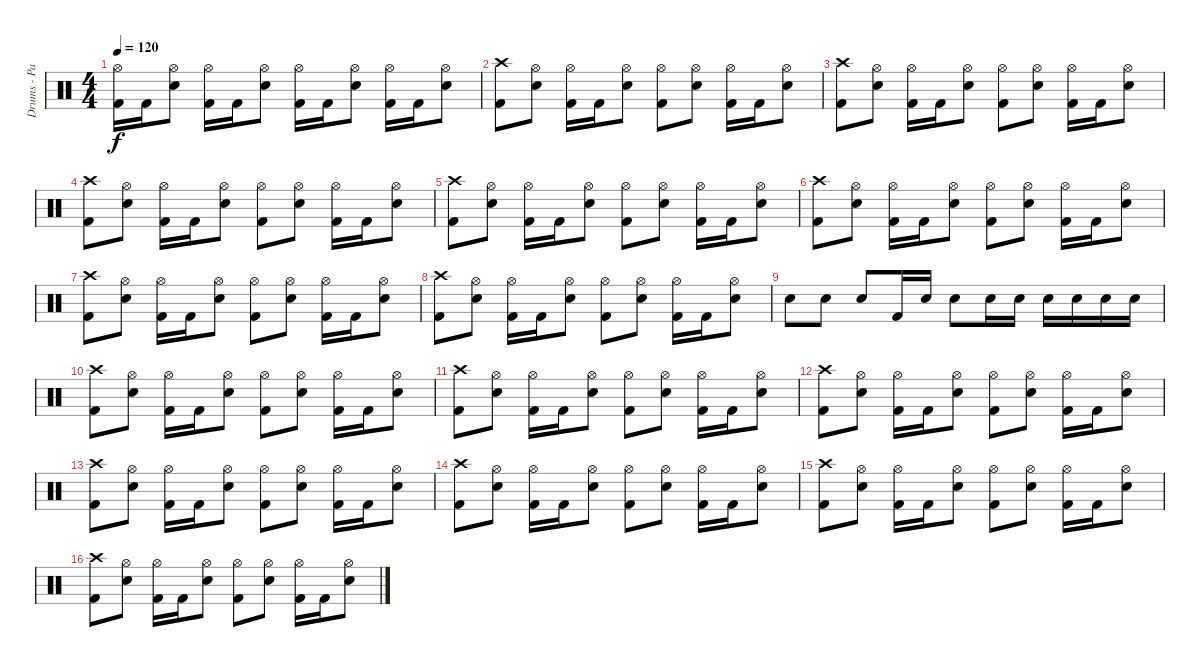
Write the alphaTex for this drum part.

\track ("Drums - Pat Thetic" "Drums - Pa") {instrument percussion}
\staff {score}
\articulation defaults
\ts (4 4)
\tempo 120
\clef neutral
\ks c
("Hi-Hat (open)" "Kick (hit) 2").16{dy f} "Kick (hit) 2".16 ("Hi-Hat (open)" "Electric Snare (hit)").8 ("Hi-Hat (open)" "Kick (hit) 2").16 "Kick (hit) 2".16 ("Hi-Hat (open)" "Electric Snare (hit)").8 ("Hi-Hat (open)" "Kick (hit) 2").16 "Kick (hit) 2".16 ("Hi-Hat (open)" "Electric Snare (hit)").8 ("Hi-Hat (open)" "Kick (hit) 2").16 "Kick (hit) 2".16 ("Hi-Hat (open)" "Electric Snare (hit)").8 |
("Crash high (hit)" "Kick (hit) 2").8 ("Hi-Hat (open)" "Electric Snare (hit)").8 ("Hi-Hat (open)" "Kick (hit) 2").16 "Kick (hit) 2".16 ("Hi-Hat (open)" "Electric Snare (hit)").8 ("Hi-Hat (open)" "Kick (hit) 2").8 ("Hi-Hat (open)" "Electric Snare (hit)").8 ("Hi-Hat (open)" "Kick (hit) 2").16 "Kick (hit) 2".16 ("Hi-Hat (open)" "Electric Snare (hit)").8 |
("Crash high (hit)" "Kick (hit) 2").8 ("Hi-Hat (open)" "Electric Snare (hit)").8 ("Hi-Hat (open)" "Kick (hit) 2").16 "Kick (hit) 2".16 ("Hi-Hat (open)" "Electric Snare (hit)").8 ("Hi-Hat (open)" "Kick (hit) 2").8 ("Hi-Hat (open)" "Electric Snare (hit)").8 ("Hi-Hat (open)" "Kick (hit) 2").16 "Kick (hit) 2".16 ("Hi-Hat (open)" "Electric Snare (hit)").8 |
("Crash high (hit)" "Kick (hit) 2").8 ("Hi-Hat (open)" "Electric Snare (hit)").8 ("Hi-Hat (open)" "Kick (hit) 2").16 "Kick (hit) 2".16 ("Hi-Hat (open)" "Electric Snare (hit)").8 ("Hi-Hat (open)" "Kick (hit) 2").8 ("Hi-Hat (open)" "Electric Snare (hit)").8 ("Hi-Hat (open)" "Kick (hit) 2").16 "Kick (hit) 2".16 ("Hi-Hat (open)" "Electric Snare (hit)").8 |
("Crash high (hit)" "Kick (hit) 2").8 ("Hi-Hat (open)" "Electric Snare (hit)").8 ("Hi-Hat (open)" "Kick (hit) 2").16 "Kick (hit) 2".16 ("Hi-Hat (open)" "Electric Snare (hit)").8 ("Hi-Hat (open)" "Kick (hit) 2").8 ("Hi-Hat (open)" "Electric Snare (hit)").8 ("Hi-Hat (open)" "Kick (hit) 2").16 "Kick (hit) 2".16 ("Hi-Hat (open)" "Electric Snare (hit)").8 |
("Crash high (hit)" "Kick (hit) 2").8 ("Hi-Hat (open)" "Electric Snare (hit)").8 ("Hi-Hat (open)" "Kick (hit) 2").16 "Kick (hit) 2".16 ("Hi-Hat (open)" "Electric Snare (hit)").8 ("Hi-Hat (open)" "Kick (hit) 2").8 ("Hi-Hat (open)" "Electric Snare (hit)").8 ("Hi-Hat (open)" "Kick (hit) 2").16 "Kick (hit) 2".16 ("Hi-Hat (open)" "Electric Snare (hit)").8 |
("Crash high (hit)" "Kick (hit) 2").8 ("Hi-Hat (open)" "Electric Snare (hit)").8 ("Hi-Hat (open)" "Kick (hit) 2").16 "Kick (hit) 2".16 ("Hi-Hat (open)" "Electric Snare (hit)").8 ("Hi-Hat (open)" "Kick (hit) 2").8 ("Hi-Hat (open)" "Electric Snare (hit)").8 ("Hi-Hat (open)" "Kick (hit) 2").16 "Kick (hit) 2".16 ("Hi-Hat (open)" "Electric Snare (hit)").8 |
("Crash high (hit)" "Kick (hit) 2").8 ("Hi-Hat (open)" "Electric Snare (hit)").8 ("Hi-Hat (open)" "Kick (hit) 2").16 "Kick (hit) 2".16 ("Hi-Hat (open)" "Electric Snare (hit)").8 ("Hi-Hat (open)" "Kick (hit) 2").8 ("Hi-Hat (open)" "Electric Snare (hit)").8 ("Hi-Hat (open)" "Kick (hit) 2").16 "Kick (hit) 2".16 ("Hi-Hat (open)" "Electric Snare (hit)").8 |
"Electric Snare (hit)".8 "Electric Snare (hit)".8 "Electric Snare (hit)".8 "Kick (hit) 2".16 "Electric Snare (hit)".16 "Electric Snare (hit)".8 "Electric Snare (hit)".16 "Electric Snare (hit)".16 "Electric Snare (hit)".16 "Electric Snare (hit)".16 "Electric Snare (hit)".16 "Electric Snare (hit)".16 |
("Crash high (hit)" "Kick (hit) 2").8 ("Hi-Hat (open)" "Electric Snare (hit)").8 ("Hi-Hat (open)" "Kick (hit) 2").16 "Kick (hit) 2".16 ("Hi-Hat (open)" "Electric Snare (hit)").8 ("Hi-Hat (open)" "Kick (hit) 2").8 ("Hi-Hat (open)" "Electric Snare (hit)").8 ("Hi-Hat (open)" "Kick (hit) 2").16 "Kick (hit) 2".16 ("Hi-Hat (open)" "Electric Snare (hit)").8 |
("Crash high (hit)" "Kick (hit) 2").8 ("Hi-Hat (open)" "Electric Snare (hit)").8 ("Hi-Hat (open)" "Kick (hit) 2").16 "Kick (hit) 2".16 ("Hi-Hat (open)" "Electric Snare (hit)").8 ("Hi-Hat (open)" "Kick (hit) 2").8 ("Hi-Hat (open)" "Electric Snare (hit)").8 ("Hi-Hat (open)" "Kick (hit) 2").16 "Kick (hit) 2".16 ("Hi-Hat (open)" "Electric Snare (hit)").8 |
("Crash high (hit)" "Kick (hit) 2").8 ("Hi-Hat (open)" "Electric Snare (hit)").8 ("Hi-Hat (open)" "Kick (hit) 2").16 "Kick (hit) 2".16 ("Hi-Hat (open)" "Electric Snare (hit)").8 ("Hi-Hat (open)" "Kick (hit) 2").8 ("Hi-Hat (open)" "Electric Snare (hit)").8 ("Hi-Hat (open)" "Kick (hit) 2").16 "Kick (hit) 2".16 ("Hi-Hat (open)" "Electric Snare (hit)").8 |
("Crash high (hit)" "Kick (hit) 2").8 ("Hi-Hat (open)" "Electric Snare (hit)").8 ("Hi-Hat (open)" "Kick (hit) 2").16 "Kick (hit) 2".16 ("Hi-Hat (open)" "Electric Snare (hit)").8 ("Hi-Hat (open)" "Kick (hit) 2").8 ("Hi-Hat (open)" "Electric Snare (hit)").8 ("Hi-Hat (open)" "Kick (hit) 2").16 "Kick (hit) 2".16 ("Hi-Hat (open)" "Electric Snare (hit)").8 |
("Crash high (hit)" "Kick (hit) 2").8 ("Hi-Hat (open)" "Electric Snare (hit)").8 ("Hi-Hat (open)" "Kick (hit) 2").16 "Kick (hit) 2".16 ("Hi-Hat (open)" "Electric Snare (hit)").8 ("Hi-Hat (open)" "Kick (hit) 2").8 ("Hi-Hat (open)" "Electric Snare (hit)").8 ("Hi-Hat (open)" "Kick (hit) 2").16 "Kick (hit) 2".16 ("Hi-Hat (open)" "Electric Snare (hit)").8 |
("Crash high (hit)" "Kick (hit) 2").8 ("Hi-Hat (open)" "Electric Snare (hit)").8 ("Hi-Hat (open)" "Kick (hit) 2").16 "Kick (hit) 2".16 ("Hi-Hat (open)" "Electric Snare (hit)").8 ("Hi-Hat (open)" "Kick (hit) 2").8 ("Hi-Hat (open)" "Electric Snare (hit)").8 ("Hi-Hat (open)" "Kick (hit) 2").16 "Kick (hit) 2".16 ("Hi-Hat (open)" "Electric Snare (hit)").8 |
("Crash high (hit)" "Kick (hit) 2").8 ("Hi-Hat (open)" "Electric Snare (hit)").8 ("Hi-Hat (open)" "Kick (hit) 2").16 "Kick (hit) 2".16 ("Hi-Hat (open)" "Electric Snare (hit)").8 ("Hi-Hat (open)" "Kick (hit) 2").8 ("Hi-Hat (open)" "Electric Snare (hit)").8 ("Hi-Hat (open)" "Kick (hit) 2").16 "Kick (hit) 2".16 ("Hi-Hat (open)" "Electric Snare (hit)").8
